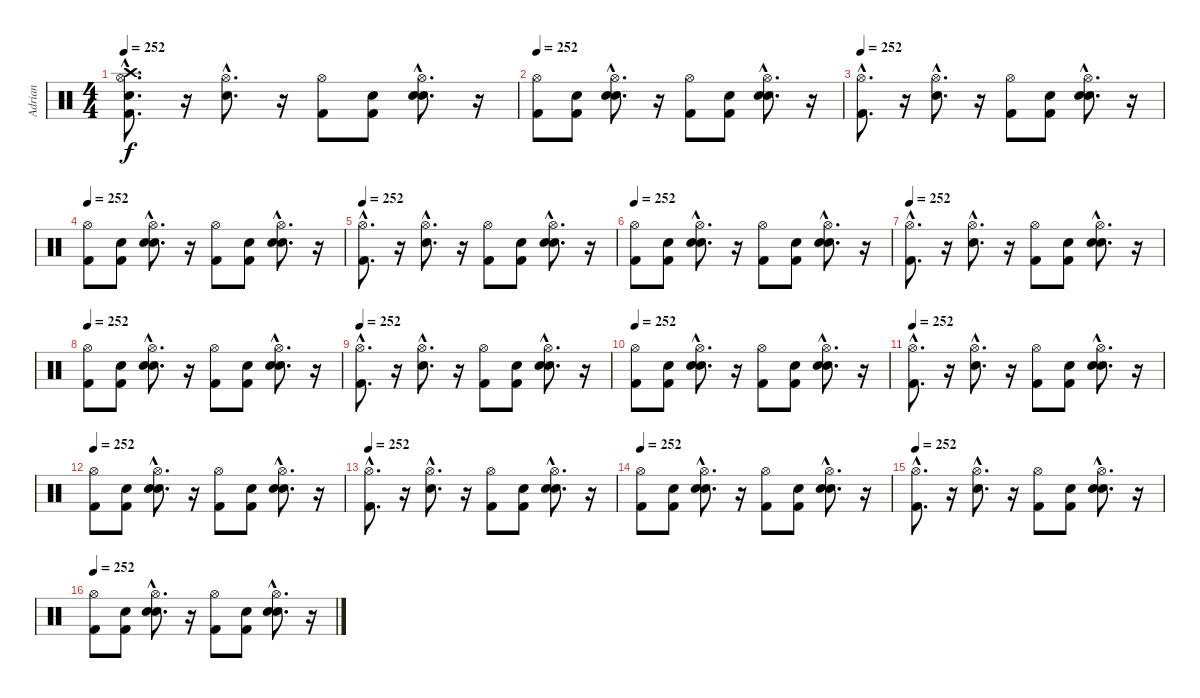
\track ("Adrian" "Adrian") {instrument percussion}
\staff {score}
\articulation defaults
\ts (4 4)
\tempo 250
\tempo 252
\clef neutral
\ks c
("Snare (hit)"{hac} "Kick (hit) 2"{hac} "Hi-Hat (open)"{hac} "Crash high (hit)"{hac}).8{d dy f} r.16 ("Snare (hit) 2"{hac} "Hi-Hat (open)"{hac}).8{d} r.16 ("Kick (hit) 2" "Hi-Hat (open)").8 ("Snare (hit)" "Kick (hit) 2").8 ("Snare (hit)"{hac} "Snare (hit) 2"{hac} "Hi-Hat (open)"{hac}).8{d} r.16 |
\tempo 252
("Kick (hit) 2" "Hi-Hat (open)").8 ("Snare (hit)" "Kick (hit) 2").8 ("Snare (hit)"{hac} "Snare (hit) 2"{hac} "Hi-Hat (open)"{hac}).8{d} r.16 ("Kick (hit) 2" "Hi-Hat (open)").8 ("Snare (hit)" "Kick (hit) 2").8 ("Snare (hit)"{hac} "Snare (hit) 2"{hac} "Hi-Hat (open)"{hac}).8{d} r.16 |
\tempo 252
("Kick (hit) 2"{hac} "Hi-Hat (open)"{hac}).8{d} r.16 ("Snare (hit) 2"{hac} "Hi-Hat (open)"{hac}).8{d} r.16 ("Kick (hit) 2" "Hi-Hat (open)").8 ("Snare (hit)" "Kick (hit) 2").8 ("Snare (hit)"{hac} "Snare (hit) 2"{hac} "Hi-Hat (open)"{hac}).8{d} r.16 |
\tempo 252
("Kick (hit) 2" "Hi-Hat (open)").8 ("Snare (hit)" "Kick (hit) 2").8 ("Snare (hit)"{hac} "Snare (hit) 2"{hac} "Hi-Hat (open)"{hac}).8{d} r.16 ("Kick (hit) 2" "Hi-Hat (open)").8 ("Snare (hit)" "Kick (hit) 2").8 ("Snare (hit)"{hac} "Snare (hit) 2"{hac} "Hi-Hat (open)"{hac}).8{d} r.16 |
\tempo 252
("Kick (hit) 2"{hac} "Hi-Hat (open)"{hac}).8{d} r.16 ("Snare (hit) 2"{hac} "Hi-Hat (open)"{hac}).8{d} r.16 ("Kick (hit) 2" "Hi-Hat (open)").8 ("Snare (hit)" "Kick (hit) 2").8 ("Snare (hit)"{hac} "Snare (hit) 2"{hac} "Hi-Hat (open)"{hac}).8{d} r.16 |
\tempo 252
("Kick (hit) 2" "Hi-Hat (open)").8 ("Snare (hit)" "Kick (hit) 2").8 ("Snare (hit)"{hac} "Snare (hit) 2"{hac} "Hi-Hat (open)"{hac}).8{d} r.16 ("Kick (hit) 2" "Hi-Hat (open)").8 ("Snare (hit)" "Kick (hit) 2").8 ("Snare (hit)"{hac} "Snare (hit) 2"{hac} "Hi-Hat (open)"{hac}).8{d} r.16 |
\tempo 252
("Kick (hit) 2"{hac} "Hi-Hat (open)"{hac}).8{d} r.16 ("Snare (hit) 2"{hac} "Hi-Hat (open)"{hac}).8{d} r.16 ("Kick (hit) 2" "Hi-Hat (open)").8 ("Snare (hit)" "Kick (hit) 2").8 ("Snare (hit)"{hac} "Snare (hit) 2"{hac} "Hi-Hat (open)"{hac}).8{d} r.16 |
\tempo 252
("Kick (hit) 2" "Hi-Hat (open)").8 ("Snare (hit)" "Kick (hit) 2").8 ("Snare (hit)"{hac} "Snare (hit) 2"{hac} "Hi-Hat (open)"{hac}).8{d} r.16 ("Kick (hit) 2" "Hi-Hat (open)").8 ("Snare (hit)" "Kick (hit) 2").8 ("Snare (hit)"{hac} "Snare (hit) 2"{hac} "Hi-Hat (open)"{hac}).8{d} r.16 |
\tempo 252
("Kick (hit) 2"{hac} "Hi-Hat (open)"{hac}).8{d} r.16 ("Snare (hit) 2"{hac} "Hi-Hat (open)"{hac}).8{d} r.16 ("Kick (hit) 2" "Hi-Hat (open)").8 ("Snare (hit)" "Kick (hit) 2").8 ("Snare (hit)"{hac} "Snare (hit) 2"{hac} "Hi-Hat (open)"{hac}).8{d} r.16 |
\tempo 252
("Kick (hit) 2" "Hi-Hat (open)").8 ("Snare (hit)" "Kick (hit) 2").8 ("Snare (hit)"{hac} "Snare (hit) 2"{hac} "Hi-Hat (open)"{hac}).8{d} r.16 ("Kick (hit) 2" "Hi-Hat (open)").8 ("Snare (hit)" "Kick (hit) 2").8 ("Snare (hit)"{hac} "Snare (hit) 2"{hac} "Hi-Hat (open)"{hac}).8{d} r.16 |
\tempo 252
("Kick (hit) 2"{hac} "Hi-Hat (open)"{hac}).8{d} r.16 ("Snare (hit) 2"{hac} "Hi-Hat (open)"{hac}).8{d} r.16 ("Kick (hit) 2" "Hi-Hat (open)").8 ("Snare (hit)" "Kick (hit) 2").8 ("Snare (hit)"{hac} "Snare (hit) 2"{hac} "Hi-Hat (open)"{hac}).8{d} r.16 |
\tempo 252
("Kick (hit) 2" "Hi-Hat (open)").8 ("Snare (hit)" "Kick (hit) 2").8 ("Snare (hit)"{hac} "Snare (hit) 2"{hac} "Hi-Hat (open)"{hac}).8{d} r.16 ("Kick (hit) 2" "Hi-Hat (open)").8 ("Snare (hit)" "Kick (hit) 2").8 ("Snare (hit)"{hac} "Snare (hit) 2"{hac} "Hi-Hat (open)"{hac}).8{d} r.16 |
\tempo 252
("Kick (hit) 2"{hac} "Hi-Hat (open)"{hac}).8{d} r.16 ("Snare (hit) 2"{hac} "Hi-Hat (open)"{hac}).8{d} r.16 ("Kick (hit) 2" "Hi-Hat (open)").8 ("Snare (hit)" "Kick (hit) 2").8 ("Snare (hit)"{hac} "Snare (hit) 2"{hac} "Hi-Hat (open)"{hac}).8{d} r.16 |
\tempo 252
("Kick (hit) 2" "Hi-Hat (open)").8 ("Snare (hit)" "Kick (hit) 2").8 ("Snare (hit)"{hac} "Snare (hit) 2"{hac} "Hi-Hat (open)"{hac}).8{d} r.16 ("Kick (hit) 2" "Hi-Hat (open)").8 ("Snare (hit)" "Kick (hit) 2").8 ("Snare (hit)"{hac} "Snare (hit) 2"{hac} "Hi-Hat (open)"{hac}).8{d} r.16 |
\tempo 252
("Kick (hit) 2"{hac} "Hi-Hat (open)"{hac}).8{d} r.16 ("Snare (hit) 2"{hac} "Hi-Hat (open)"{hac}).8{d} r.16 ("Kick (hit) 2" "Hi-Hat (open)").8 ("Snare (hit)" "Kick (hit) 2").8 ("Snare (hit)"{hac} "Snare (hit) 2"{hac} "Hi-Hat (open)"{hac}).8{d} r.16 |
\tempo 252
("Kick (hit) 2" "Hi-Hat (open)").8 ("Snare (hit)" "Kick (hit) 2").8 ("Snare (hit)"{hac} "Snare (hit) 2"{hac} "Hi-Hat (open)"{hac}).8{d} r.16 ("Kick (hit) 2" "Hi-Hat (open)").8 ("Snare (hit)" "Kick (hit) 2").8 ("Snare (hit)"{hac} "Snare (hit) 2"{hac} "Hi-Hat (open)"{hac}).8{d} r.16
